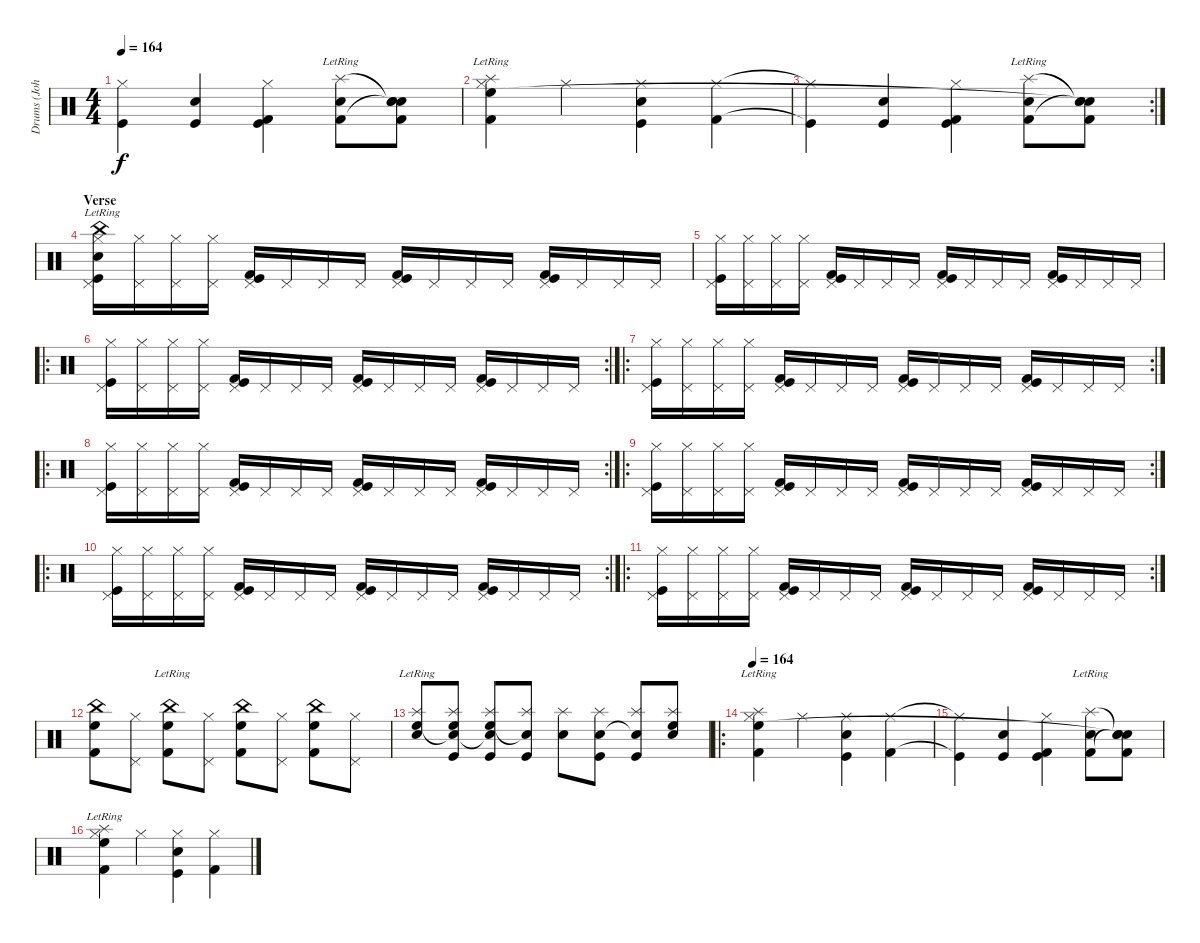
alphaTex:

\track ("Drums (John)" "Drums (Joh") {instrument percussion}
\staff {score}
\articulation defaults
\ts (4 4)
\tempo 164
\clef neutral
\ks c
("Hi-Hat (closed)"{t} "Kick (hit)"{t}).4{dy f} ("Electric Snare (hit)" "Kick (hit)").4 ("Hi-Hat (closed)" "Kick (hit) 2" "Kick (hit)").4 ("Splash (hit)"{lr} "Electric Snare (hit)" "Kick (hit) 2").8 ("Snare (hit)"{t} "Kick (hit) 2" "Snare (hit)"{t} "Snare (hit)"{t}).8 |
("Splash (hit)"{lr} "Hi-Hat (closed)" "Kick (hit) 2" "High Floor Tom (hit)").4 "Hi-Hat (closed)".4 ("Hi-Hat (closed)" "Electric Snare (hit)" "Kick (hit)").4 ("Hi-Hat (closed)" "Kick (hit) 2").4 |
\rc 2
("Hi-Hat (closed)"{t} "Kick (hit)"{t}).4 ("Electric Snare (hit)" "Kick (hit)").4 ("Hi-Hat (closed)" "Kick (hit) 2" "Kick (hit)").4 ("Splash (hit)"{lr} "Electric Snare (hit)" "Kick (hit) 2").8 ("Snare (hit)"{t} "Kick (hit) 2" "Snare (hit)"{t} "Snare (hit)"{t}).8 |
\section ("" "Verse")
("China (hit)"{lr} "Electric Snare (hit)" "Pedal Hi-Hat (hit)" "Hi-Hat (closed)" "Kick (hit)").16 ("Pedal Hi-Hat (hit)" "Hi-Hat (closed)").16 ("Pedal Hi-Hat (hit)" "Hi-Hat (closed)").16 ("Pedal Hi-Hat (hit)" "Hi-Hat (closed)").16 ("Pedal Hi-Hat (hit)" "Kick (hit) 2" "Kick (hit)").16 "Pedal Hi-Hat (hit)".16 "Pedal Hi-Hat (hit)".16 "Pedal Hi-Hat (hit)".16 ("Pedal Hi-Hat (hit)" "Kick (hit) 2" "Kick (hit)").16 "Pedal Hi-Hat (hit)".16 "Pedal Hi-Hat (hit)".16 "Pedal Hi-Hat (hit)".16 ("Pedal Hi-Hat (hit)" "Kick (hit) 2" "Kick (hit)").16 "Pedal Hi-Hat (hit)".16 "Pedal Hi-Hat (hit)".16 "Pedal Hi-Hat (hit)".16 |
("Pedal Hi-Hat (hit)" "Hi-Hat (closed)" "Kick (hit)").16 ("Pedal Hi-Hat (hit)" "Hi-Hat (closed)").16 ("Pedal Hi-Hat (hit)" "Hi-Hat (closed)").16 ("Pedal Hi-Hat (hit)" "Hi-Hat (closed)").16 ("Pedal Hi-Hat (hit)" "Kick (hit) 2" "Kick (hit)").16 "Pedal Hi-Hat (hit)".16 "Pedal Hi-Hat (hit)".16 "Pedal Hi-Hat (hit)".16 ("Pedal Hi-Hat (hit)" "Kick (hit) 2" "Kick (hit)").16 "Pedal Hi-Hat (hit)".16 "Pedal Hi-Hat (hit)".16 "Pedal Hi-Hat (hit)".16 ("Pedal Hi-Hat (hit)" "Kick (hit) 2" "Kick (hit)").16 "Pedal Hi-Hat (hit)".16 "Pedal Hi-Hat (hit)".16 "Pedal Hi-Hat (hit)".16 |
\ro
\rc 2
("Pedal Hi-Hat (hit)" "Hi-Hat (closed)" "Kick (hit)").16 ("Pedal Hi-Hat (hit)" "Hi-Hat (closed)").16 ("Pedal Hi-Hat (hit)" "Hi-Hat (closed)").16 ("Pedal Hi-Hat (hit)" "Hi-Hat (closed)").16 ("Pedal Hi-Hat (hit)" "Kick (hit) 2" "Kick (hit)").16 "Pedal Hi-Hat (hit)".16 "Pedal Hi-Hat (hit)".16 "Pedal Hi-Hat (hit)".16 ("Pedal Hi-Hat (hit)" "Kick (hit) 2" "Kick (hit)").16 "Pedal Hi-Hat (hit)".16 "Pedal Hi-Hat (hit)".16 "Pedal Hi-Hat (hit)".16 ("Pedal Hi-Hat (hit)" "Kick (hit) 2" "Kick (hit)").16 "Pedal Hi-Hat (hit)".16 "Pedal Hi-Hat (hit)".16 "Pedal Hi-Hat (hit)".16 |
\ro
\rc 2
("Pedal Hi-Hat (hit)" "Hi-Hat (closed)" "Kick (hit)").16 ("Pedal Hi-Hat (hit)" "Hi-Hat (closed)").16 ("Pedal Hi-Hat (hit)" "Hi-Hat (closed)").16 ("Pedal Hi-Hat (hit)" "Hi-Hat (closed)").16 ("Pedal Hi-Hat (hit)" "Kick (hit) 2" "Kick (hit)").16 "Pedal Hi-Hat (hit)".16 "Pedal Hi-Hat (hit)".16 "Pedal Hi-Hat (hit)".16 ("Pedal Hi-Hat (hit)" "Kick (hit) 2" "Kick (hit)").16 "Pedal Hi-Hat (hit)".16 "Pedal Hi-Hat (hit)".16 "Pedal Hi-Hat (hit)".16 ("Pedal Hi-Hat (hit)" "Kick (hit) 2" "Kick (hit)").16 "Pedal Hi-Hat (hit)".16 "Pedal Hi-Hat (hit)".16 "Pedal Hi-Hat (hit)".16 |
\ro
\rc 2
("Pedal Hi-Hat (hit)" "Hi-Hat (closed)" "Kick (hit)").16 ("Pedal Hi-Hat (hit)" "Hi-Hat (closed)").16 ("Pedal Hi-Hat (hit)" "Hi-Hat (closed)").16 ("Pedal Hi-Hat (hit)" "Hi-Hat (closed)").16 ("Pedal Hi-Hat (hit)" "Kick (hit) 2" "Kick (hit)").16 "Pedal Hi-Hat (hit)".16 "Pedal Hi-Hat (hit)".16 "Pedal Hi-Hat (hit)".16 ("Pedal Hi-Hat (hit)" "Kick (hit) 2" "Kick (hit)").16 "Pedal Hi-Hat (hit)".16 "Pedal Hi-Hat (hit)".16 "Pedal Hi-Hat (hit)".16 ("Pedal Hi-Hat (hit)" "Kick (hit) 2" "Kick (hit)").16 "Pedal Hi-Hat (hit)".16 "Pedal Hi-Hat (hit)".16 "Pedal Hi-Hat (hit)".16 |
\ro
\rc 2
("Pedal Hi-Hat (hit)" "Hi-Hat (closed)" "Kick (hit)").16 ("Pedal Hi-Hat (hit)" "Hi-Hat (closed)").16 ("Pedal Hi-Hat (hit)" "Hi-Hat (closed)").16 ("Pedal Hi-Hat (hit)" "Hi-Hat (closed)").16 ("Pedal Hi-Hat (hit)" "Kick (hit) 2" "Kick (hit)").16 "Pedal Hi-Hat (hit)".16 "Pedal Hi-Hat (hit)".16 "Pedal Hi-Hat (hit)".16 ("Pedal Hi-Hat (hit)" "Kick (hit) 2" "Kick (hit)").16 "Pedal Hi-Hat (hit)".16 "Pedal Hi-Hat (hit)".16 "Pedal Hi-Hat (hit)".16 ("Pedal Hi-Hat (hit)" "Kick (hit) 2" "Kick (hit)").16 "Pedal Hi-Hat (hit)".16 "Pedal Hi-Hat (hit)".16 "Pedal Hi-Hat (hit)".16 |
\ro
\rc 2
("Pedal Hi-Hat (hit)" "Hi-Hat (closed)" "Kick (hit)").16 ("Pedal Hi-Hat (hit)" "Hi-Hat (closed)").16 ("Pedal Hi-Hat (hit)" "Hi-Hat (closed)").16 ("Pedal Hi-Hat (hit)" "Hi-Hat (closed)").16 ("Pedal Hi-Hat (hit)" "Kick (hit) 2" "Kick (hit)").16 "Pedal Hi-Hat (hit)".16 "Pedal Hi-Hat (hit)".16 "Pedal Hi-Hat (hit)".16 ("Pedal Hi-Hat (hit)" "Kick (hit) 2" "Kick (hit)").16 "Pedal Hi-Hat (hit)".16 "Pedal Hi-Hat (hit)".16 "Pedal Hi-Hat (hit)".16 ("Pedal Hi-Hat (hit)" "Kick (hit) 2" "Kick (hit)").16 "Pedal Hi-Hat (hit)".16 "Pedal Hi-Hat (hit)".16 "Pedal Hi-Hat (hit)".16 |
\ro
\rc 2
("Pedal Hi-Hat (hit)" "Hi-Hat (closed)" "Kick (hit)").16 ("Pedal Hi-Hat (hit)" "Hi-Hat (closed)").16 ("Pedal Hi-Hat (hit)" "Hi-Hat (closed)").16 ("Pedal Hi-Hat (hit)" "Hi-Hat (closed)").16 ("Pedal Hi-Hat (hit)" "Kick (hit) 2" "Kick (hit)").16 "Pedal Hi-Hat (hit)".16 "Pedal Hi-Hat (hit)".16 "Pedal Hi-Hat (hit)".16 ("Pedal Hi-Hat (hit)" "Kick (hit) 2" "Kick (hit)").16 "Pedal Hi-Hat (hit)".16 "Pedal Hi-Hat (hit)".16 "Pedal Hi-Hat (hit)".16 ("Pedal Hi-Hat (hit)" "Kick (hit) 2" "Kick (hit)").16 "Pedal Hi-Hat (hit)".16 "Pedal Hi-Hat (hit)".16 "Pedal Hi-Hat (hit)".16 |
("China (hit)" "Kick (hit) 2" "High Floor Tom (hit)").8 ("Hi-Hat (closed)" "Pedal Hi-Hat (hit)").8 ("China (hit)"{lr} "Kick (hit) 2" "High Floor Tom (hit)").8 ("Hi-Hat (closed)" "Pedal Hi-Hat (hit)").8 ("China (hit)" "Kick (hit) 2" "High Floor Tom (hit)").8 ("Hi-Hat (closed)" "Pedal Hi-Hat (hit)").8 ("China (hit)" "Kick (hit) 2" "High Floor Tom (hit)").8 ("Hi-Hat (closed)" "Pedal Hi-Hat (hit)").8 |
("Splash (hit)"{lr} "Electric Snare (hit)" "High Floor Tom (hit)").8 ("Splash (hit)" "High Floor Tom (hit)" "Snare (hit)"{t} "Kick (hit)").8 ("Splash (hit)" "High Floor Tom (hit)" "Snare (hit)"{t} "Kick (hit)").8 ("Splash (hit)" "Snare (hit)"{t} "Kick (hit)").8 ("Splash (hit)" "Electric Snare (hit)").8 ("Splash (hit)" "Electric Snare (hit)" "Kick (hit)").8 ("Splash (hit)" "Snare (hit)"{t} "Kick (hit)").8 ("Splash (hit)" "Electric Snare (hit)" "High Floor Tom (hit)").8 |
\ro
\tempo 164
("Splash (hit)"{lr} "Hi-Hat (closed)" "Kick (hit) 2" "High Floor Tom (hit)").4 "Hi-Hat (closed)".4 ("Hi-Hat (closed)" "Electric Snare (hit)" "Kick (hit)").4 ("Hi-Hat (closed)" "Kick (hit) 2").4 |
("Hi-Hat (closed)"{t} "Kick (hit)"{t}).4 ("Electric Snare (hit)" "Kick (hit)").4 ("Hi-Hat (closed)" "Kick (hit) 2" "Kick (hit)").4 ("Splash (hit)"{lr} "Electric Snare (hit)" "Kick (hit) 2").8 ("Snare (hit)"{t} "Kick (hit) 2" "Snare (hit)"{t} "Snare (hit)"{t}).8 |
("Splash (hit)"{lr} "Hi-Hat (closed)" "Kick (hit) 2" "High Floor Tom (hit)").4 "Hi-Hat (closed)".4 ("Hi-Hat (closed)" "Electric Snare (hit)" "Kick (hit)").4 ("Hi-Hat (closed)" "Kick (hit) 2").4
